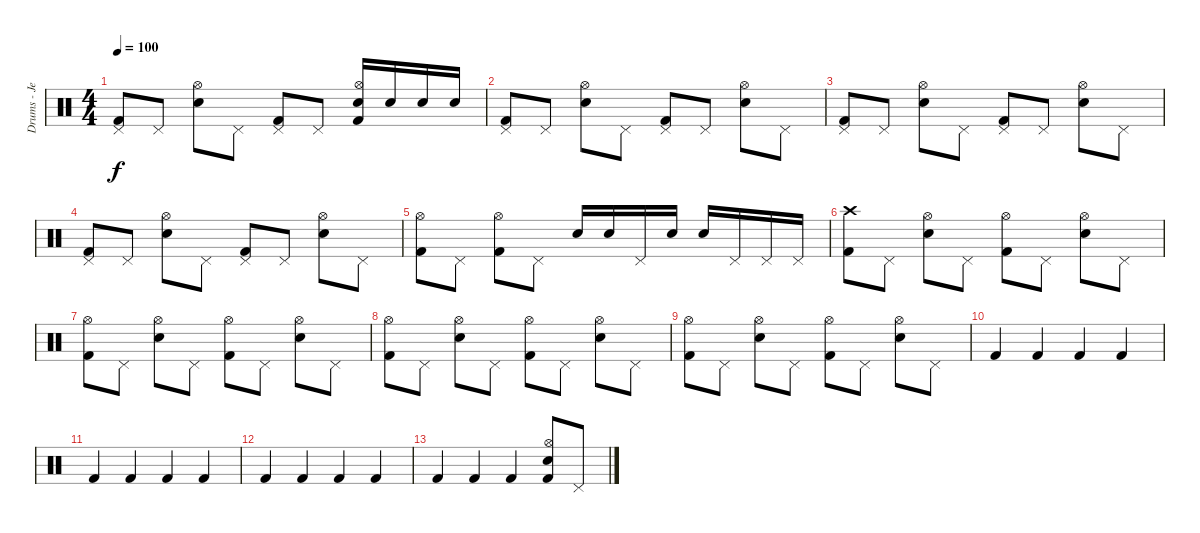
\track ("Drums - Jeremiah Green" "Drums - Je") {instrument percussion}
\staff {score}
\articulation defaults
\ts (4 4)
\tempo 100
\clef neutral
\ks c
("Pedal Hi-Hat (hit)" "Kick (hit) 2").8{dy f} "Pedal Hi-Hat (hit)".8 ("Hi-Hat (open)" "Electric Snare (hit)").8 "Pedal Hi-Hat (hit)".8 ("Pedal Hi-Hat (hit)" "Kick (hit) 2").8 "Pedal Hi-Hat (hit)".8 ("Hi-Hat (open)" "Electric Snare (hit)" "Kick (hit) 2").16 "Electric Snare (hit)".16 "Electric Snare (hit)".16 "Electric Snare (hit)".16 |
("Pedal Hi-Hat (hit)" "Kick (hit) 2").8 "Pedal Hi-Hat (hit)".8 ("Hi-Hat (open)" "Electric Snare (hit)").8 "Pedal Hi-Hat (hit)".8 ("Pedal Hi-Hat (hit)" "Kick (hit) 2").8 "Pedal Hi-Hat (hit)".8 ("Hi-Hat (open)" "Electric Snare (hit)").8 "Pedal Hi-Hat (hit)".8 |
("Pedal Hi-Hat (hit)" "Kick (hit) 2").8 "Pedal Hi-Hat (hit)".8 ("Hi-Hat (open)" "Electric Snare (hit)").8 "Pedal Hi-Hat (hit)".8 ("Pedal Hi-Hat (hit)" "Kick (hit) 2").8 "Pedal Hi-Hat (hit)".8 ("Hi-Hat (open)" "Electric Snare (hit)").8 "Pedal Hi-Hat (hit)".8 |
("Pedal Hi-Hat (hit)" "Kick (hit) 2").8 "Pedal Hi-Hat (hit)".8 ("Hi-Hat (open)" "Electric Snare (hit)").8 "Pedal Hi-Hat (hit)".8 ("Pedal Hi-Hat (hit)" "Kick (hit) 2").8 "Pedal Hi-Hat (hit)".8 ("Hi-Hat (open)" "Electric Snare (hit)").8 "Pedal Hi-Hat (hit)".8 |
("Hi-Hat (open)" "Kick (hit) 2").8 "Pedal Hi-Hat (hit)".8 ("Hi-Hat (open)" "Kick (hit) 2").8 "Pedal Hi-Hat (hit)".8 "Electric Snare (hit)".16 "Electric Snare (hit)".16 "Pedal Hi-Hat (hit)".16 "Electric Snare (hit)".16 "Electric Snare (hit)".16 "Pedal Hi-Hat (hit)".16 "Pedal Hi-Hat (hit)".16 "Pedal Hi-Hat (hit)".16 |
("Crash high (hit)" "Kick (hit) 2").8 "Pedal Hi-Hat (hit)".8 ("Hi-Hat (open)" "Electric Snare (hit)").8 "Pedal Hi-Hat (hit)".8 ("Hi-Hat (open)" "Kick (hit) 2").8 "Pedal Hi-Hat (hit)".8 ("Hi-Hat (open)" "Electric Snare (hit)").8 "Pedal Hi-Hat (hit)".8 |
("Hi-Hat (open)" "Kick (hit) 2").8 "Pedal Hi-Hat (hit)".8 ("Hi-Hat (open)" "Electric Snare (hit)").8 "Pedal Hi-Hat (hit)".8 ("Hi-Hat (open)" "Kick (hit) 2").8 "Pedal Hi-Hat (hit)".8 ("Hi-Hat (open)" "Electric Snare (hit)").8 "Pedal Hi-Hat (hit)".8 |
("Hi-Hat (open)" "Kick (hit) 2").8 "Pedal Hi-Hat (hit)".8 ("Hi-Hat (open)" "Electric Snare (hit)").8 "Pedal Hi-Hat (hit)".8 ("Hi-Hat (open)" "Kick (hit) 2").8 "Pedal Hi-Hat (hit)".8 ("Hi-Hat (open)" "Electric Snare (hit)").8 "Pedal Hi-Hat (hit)".8 |
("Hi-Hat (open)" "Kick (hit) 2").8 "Pedal Hi-Hat (hit)".8 ("Hi-Hat (open)" "Electric Snare (hit)").8 "Pedal Hi-Hat (hit)".8 ("Hi-Hat (open)" "Kick (hit) 2").8 "Pedal Hi-Hat (hit)".8 ("Hi-Hat (open)" "Electric Snare (hit)").8 "Pedal Hi-Hat (hit)".8 |
"Kick (hit) 2".4 "Kick (hit) 2".4 "Kick (hit) 2".4 "Kick (hit) 2".4 |
"Kick (hit) 2".4 "Kick (hit) 2".4 "Kick (hit) 2".4 "Kick (hit) 2".4 |
"Kick (hit) 2".4 "Kick (hit) 2".4 "Kick (hit) 2".4 "Kick (hit) 2".4 |
"Kick (hit) 2".4 "Kick (hit) 2".4 "Kick (hit) 2".4 ("Hi-Hat (open)" "Electric Snare (hit)" "Kick (hit) 2").8 "Pedal Hi-Hat (hit)".8
